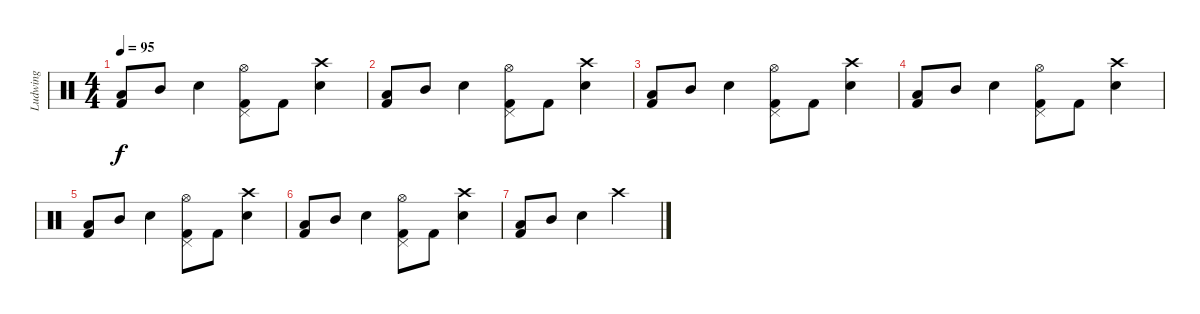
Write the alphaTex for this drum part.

\track ("Ludwing" "Ludwing") {instrument percussion}
\staff {score}
\articulation defaults
\ts (4 4)
\tempo 95
\clef neutral
\ks c
("Kick (hit) 2" "Low Tom (hit)").8{dy f} "Mid Tom (hit)".8 "Snare (hit) 2".4 ("Kick (hit) 2" "Pedal Hi-Hat (hit)" "Hi-Hat (open)").8 "Kick (hit) 2".8 ("Snare (hit) 2" "Crash high (hit)").4 |
("Kick (hit) 2" "Low Tom (hit)").8 "Mid Tom (hit)".8 "Snare (hit) 2".4 ("Kick (hit) 2" "Pedal Hi-Hat (hit)" "Hi-Hat (open)").8 "Kick (hit) 2".8 ("Snare (hit) 2" "Crash high (hit)").4 |
("Kick (hit) 2" "Low Tom (hit)").8 "Mid Tom (hit)".8 "Snare (hit) 2".4 ("Kick (hit) 2" "Pedal Hi-Hat (hit)" "Hi-Hat (open)").8 "Kick (hit) 2".8 ("Snare (hit) 2" "Crash high (hit)").4 |
("Kick (hit) 2" "Low Tom (hit)").8 "Mid Tom (hit)".8 "Snare (hit) 2".4 ("Kick (hit) 2" "Pedal Hi-Hat (hit)" "Hi-Hat (open)").8 "Kick (hit) 2".8 ("Snare (hit) 2" "Crash high (hit)").4 |
("Kick (hit) 2" "Low Tom (hit)").8 "Mid Tom (hit)".8 "Snare (hit) 2".4 ("Kick (hit) 2" "Pedal Hi-Hat (hit)" "Hi-Hat (open)").8 "Kick (hit) 2".8 ("Snare (hit) 2" "Crash high (hit)").4 |
("Kick (hit) 2" "Low Tom (hit)").8 "Mid Tom (hit)".8 "Snare (hit) 2".4 ("Kick (hit) 2" "Pedal Hi-Hat (hit)" "Hi-Hat (open)").8 "Kick (hit) 2".8 ("Snare (hit) 2" "Crash high (hit)").4 |
("Kick (hit) 2" "Low Tom (hit)").8 "Mid Tom (hit)".8 "Snare (hit) 2".4 "Crash high (hit)".2
